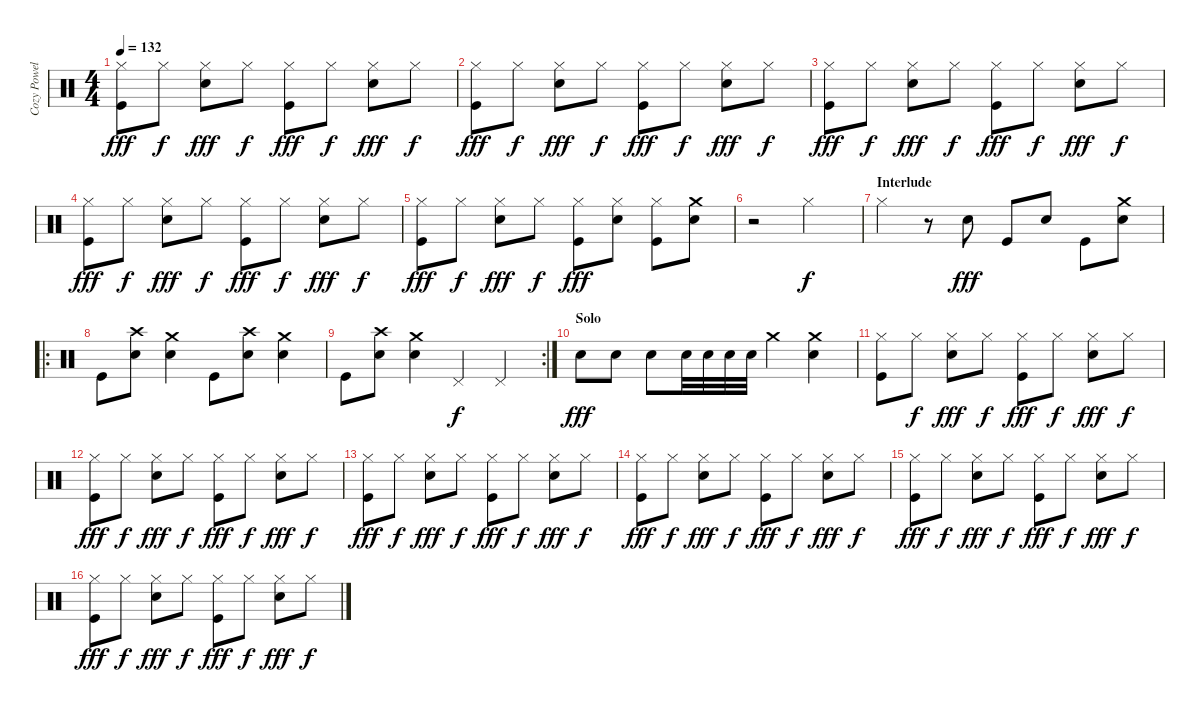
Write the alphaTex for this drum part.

\track ("Cozy Powell" "Cozy Powel") {instrument percussion}
\staff {score}
\articulation defaults
\ts (4 4)
\tempo 132
\clef neutral
\ks c
("Kick (hit)" "Hi-Hat (closed)").8{dy fff} "Hi-Hat (closed)".8{dy f} ("Snare (hit) 2" "Hi-Hat (closed)").8{dy fff} "Hi-Hat (closed)".8{dy f} ("Kick (hit)" "Hi-Hat (closed)").8{dy fff} "Hi-Hat (closed)".8{dy f} ("Snare (hit) 2" "Hi-Hat (closed)").8{dy fff} "Hi-Hat (closed)".8{dy f} |
("Kick (hit)" "Hi-Hat (closed)").8{dy fff} "Hi-Hat (closed)".8{dy f} ("Snare (hit) 2" "Hi-Hat (closed)").8{dy fff} "Hi-Hat (closed)".8{dy f} ("Kick (hit)" "Hi-Hat (closed)").8{dy fff} "Hi-Hat (closed)".8{dy f} ("Snare (hit) 2" "Hi-Hat (closed)").8{dy fff} "Hi-Hat (closed)".8{dy f} |
("Kick (hit)" "Hi-Hat (closed)").8{dy fff} "Hi-Hat (closed)".8{dy f} ("Snare (hit) 2" "Hi-Hat (closed)").8{dy fff} "Hi-Hat (closed)".8{dy f} ("Kick (hit)" "Hi-Hat (closed)").8{dy fff} "Hi-Hat (closed)".8{dy f} ("Snare (hit) 2" "Hi-Hat (closed)").8{dy fff} "Hi-Hat (closed)".8{dy f} |
("Kick (hit)" "Hi-Hat (closed)").8{dy fff} "Hi-Hat (closed)".8{dy f} ("Snare (hit) 2" "Hi-Hat (closed)").8{dy fff} "Hi-Hat (closed)".8{dy f} ("Kick (hit)" "Hi-Hat (closed)").8{dy fff} "Hi-Hat (closed)".8{dy f} ("Snare (hit) 2" "Hi-Hat (closed)").8{dy fff} "Hi-Hat (closed)".8{dy f} |
("Kick (hit)" "Hi-Hat (closed)").8{dy fff} "Hi-Hat (closed)".8{dy f} ("Snare (hit) 2" "Hi-Hat (closed)").8{dy fff} "Hi-Hat (closed)".8{dy f} ("Kick (hit)" "Hi-Hat (closed)").8{dy fff} ("Snare (hit) 2" "Hi-Hat (closed)").8 ("Kick (hit)" "Hi-Hat (closed)").8 ("Snare (hit) 2" "Crash medium (hit)").8 |
r.2 "Hi-Hat (closed)".2{dy f} |
\section ("" "Interlude")
"Hi-Hat (closed)".4 r.8 "Snare (hit) 2".8{dy fff} "Kick (hit)".8 "Snare (hit) 2".8 "Kick (hit)".8 ("Snare (hit) 2" "Crash medium (hit)").8 |
\ro "Kick (hit)".8
("Snare (hit) 2" "Crash high (hit)").8 ("Snare (hit) 2" "Crash medium (hit)").4 "Kick (hit)".8 ("Snare (hit) 2" "Crash high (hit)").8 ("Snare (hit) 2" "Crash medium (hit)").4 |
\rc 2 "Kick (hit)".8
("Snare (hit) 2" "Crash high (hit)").8 ("Snare (hit) 2" "Crash medium (hit)").4 "Pedal Hi-Hat (hit)".4{dy f} "Pedal Hi-Hat (hit)".4 |
\section ("" "Solo")
"Snare (hit) 2".8{dy fff} "Snare (hit) 2".8 "Snare (hit) 2".8 "Snare (hit) 2".32 "Snare (hit) 2".32 "Snare (hit) 2".32 "Snare (hit) 2".32 "Crash medium (hit)".4 ("Snare (hit) 2" "Crash medium (hit)").4 |
("Kick (hit)" "Hi-Hat (closed)").8 "Hi-Hat (closed)".8{dy f} ("Snare (hit) 2" "Hi-Hat (closed)").8{dy fff} "Hi-Hat (closed)".8{dy f} ("Kick (hit)" "Hi-Hat (closed)").8{dy fff} "Hi-Hat (closed)".8{dy f} ("Snare (hit) 2" "Hi-Hat (closed)").8{dy fff} "Hi-Hat (closed)".8{dy f} |
("Kick (hit)" "Hi-Hat (closed)").8{dy fff} "Hi-Hat (closed)".8{dy f} ("Snare (hit) 2" "Hi-Hat (closed)").8{dy fff} "Hi-Hat (closed)".8{dy f} ("Kick (hit)" "Hi-Hat (closed)").8{dy fff} "Hi-Hat (closed)".8{dy f} ("Snare (hit) 2" "Hi-Hat (closed)").8{dy fff} "Hi-Hat (closed)".8{dy f} |
("Kick (hit)" "Hi-Hat (closed)").8{dy fff} "Hi-Hat (closed)".8{dy f} ("Snare (hit) 2" "Hi-Hat (closed)").8{dy fff} "Hi-Hat (closed)".8{dy f} ("Kick (hit)" "Hi-Hat (closed)").8{dy fff} "Hi-Hat (closed)".8{dy f} ("Snare (hit) 2" "Hi-Hat (closed)").8{dy fff} "Hi-Hat (closed)".8{dy f} |
("Kick (hit)" "Hi-Hat (closed)").8{dy fff} "Hi-Hat (closed)".8{dy f} ("Snare (hit) 2" "Hi-Hat (closed)").8{dy fff} "Hi-Hat (closed)".8{dy f} ("Kick (hit)" "Hi-Hat (closed)").8{dy fff} "Hi-Hat (closed)".8{dy f} ("Snare (hit) 2" "Hi-Hat (closed)").8{dy fff} "Hi-Hat (closed)".8{dy f} |
("Kick (hit)" "Hi-Hat (closed)").8{dy fff} "Hi-Hat (closed)".8{dy f} ("Snare (hit) 2" "Hi-Hat (closed)").8{dy fff} "Hi-Hat (closed)".8{dy f} ("Kick (hit)" "Hi-Hat (closed)").8{dy fff} "Hi-Hat (closed)".8{dy f} ("Snare (hit) 2" "Hi-Hat (closed)").8{dy fff} "Hi-Hat (closed)".8{dy f} |
("Kick (hit)" "Hi-Hat (closed)").8{dy fff} "Hi-Hat (closed)".8{dy f} ("Snare (hit) 2" "Hi-Hat (closed)").8{dy fff} "Hi-Hat (closed)".8{dy f} ("Kick (hit)" "Hi-Hat (closed)").8{dy fff} "Hi-Hat (closed)".8{dy f} ("Snare (hit) 2" "Hi-Hat (closed)").8{dy fff} "Hi-Hat (closed)".8{dy f}
